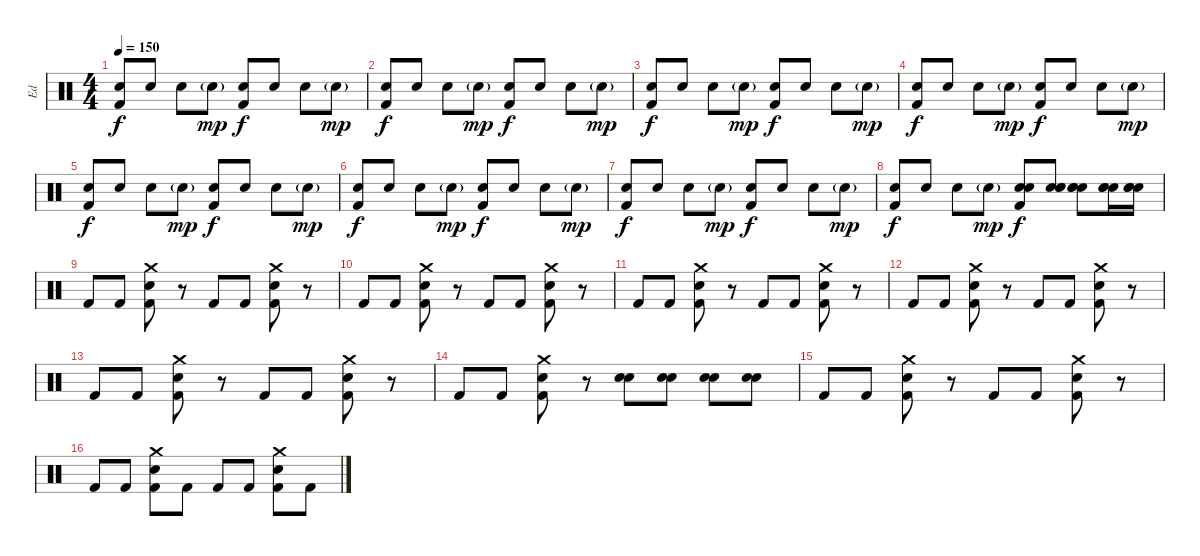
\track ("Ed" "Ed") {instrument percussion}
\staff {score}
\articulation defaults
\ts (4 4)
\tempo 150
\clef neutral
\ks c
("Kick (hit) 2" "Electric Snare (hit)").8{dy f} "Electric Snare (hit)".8 "Electric Snare (hit)".8 "Electric Snare (hit)"{g}.8{dy mp} ("Kick (hit) 2" "Electric Snare (hit)").8{dy f} "Electric Snare (hit)".8 "Electric Snare (hit)".8 "Electric Snare (hit)"{g}.8{dy mp} |
("Kick (hit) 2" "Electric Snare (hit)").8{dy f} "Electric Snare (hit)".8 "Electric Snare (hit)".8 "Electric Snare (hit)"{g}.8{dy mp} ("Kick (hit) 2" "Electric Snare (hit)").8{dy f} "Electric Snare (hit)".8 "Electric Snare (hit)".8 "Electric Snare (hit)"{g}.8{dy mp} |
("Kick (hit) 2" "Electric Snare (hit)").8{dy f} "Electric Snare (hit)".8 "Electric Snare (hit)".8 "Electric Snare (hit)"{g}.8{dy mp} ("Kick (hit) 2" "Electric Snare (hit)").8{dy f} "Electric Snare (hit)".8 "Electric Snare (hit)".8 "Electric Snare (hit)"{g}.8{dy mp} |
("Kick (hit) 2" "Electric Snare (hit)").8{dy f} "Electric Snare (hit)".8 "Electric Snare (hit)".8 "Electric Snare (hit)"{g}.8{dy mp} ("Kick (hit) 2" "Electric Snare (hit)").8{dy f} "Electric Snare (hit)".8 "Electric Snare (hit)".8 "Electric Snare (hit)"{g}.8{dy mp} |
("Kick (hit) 2" "Electric Snare (hit)").8{dy f} "Electric Snare (hit)".8 "Electric Snare (hit)".8 "Electric Snare (hit)"{g}.8{dy mp} ("Kick (hit) 2" "Electric Snare (hit)").8{dy f} "Electric Snare (hit)".8 "Electric Snare (hit)".8 "Electric Snare (hit)"{g}.8{dy mp} |
("Kick (hit) 2" "Electric Snare (hit)").8{dy f} "Electric Snare (hit)".8 "Electric Snare (hit)".8 "Electric Snare (hit)"{g}.8{dy mp} ("Kick (hit) 2" "Electric Snare (hit)").8{dy f} "Electric Snare (hit)".8 "Electric Snare (hit)".8 "Electric Snare (hit)"{g}.8{dy mp} |
("Kick (hit) 2" "Electric Snare (hit)").8{dy f} "Electric Snare (hit)".8 "Electric Snare (hit)".8 "Electric Snare (hit)"{g}.8{dy mp} ("Kick (hit) 2" "Electric Snare (hit)").8{dy f} "Electric Snare (hit)".8 "Electric Snare (hit)".8 "Electric Snare (hit)"{g}.8{dy mp} |
("Kick (hit) 2" "Electric Snare (hit)").8{dy f} "Electric Snare (hit)".8 "Electric Snare (hit)".8 "Electric Snare (hit)"{g}.8{dy mp} ("Snare (hit) 2" "Kick (hit) 2" "Electric Snare (hit)").8{dy f} ("Snare (hit) 2" "Electric Snare (hit)" "Electric Snare (hit)").8 ("Snare (hit) 2" "Electric Snare (hit)" "Electric Snare (hit)").8 ("Snare (hit) 2" "Electric Snare (hit)" "Electric Snare (hit)").16 ("Snare (hit) 2" "Electric Snare (hit)" "Electric Snare (hit)").16 |
"Kick (hit) 2".8 "Kick (hit) 2".8 ("Crash medium (hit)" "Electric Snare (hit)" "Kick (hit) 2").8 r.8 "Kick (hit) 2".8 "Kick (hit) 2".8 ("Crash medium (hit)" "Electric Snare (hit)" "Kick (hit) 2").8 r.8 |
"Kick (hit) 2".8 "Kick (hit) 2".8 ("Crash medium (hit)" "Electric Snare (hit)" "Kick (hit) 2").8 r.8 "Kick (hit) 2".8 "Kick (hit) 2".8 ("Crash medium (hit)" "Electric Snare (hit)" "Kick (hit) 2").8 r.8 |
"Kick (hit) 2".8 "Kick (hit) 2".8 ("Crash medium (hit)" "Electric Snare (hit)" "Kick (hit) 2").8 r.8 "Kick (hit) 2".8 "Kick (hit) 2".8 ("Crash medium (hit)" "Electric Snare (hit)" "Kick (hit) 2").8 r.8 |
"Kick (hit) 2".8 "Kick (hit) 2".8 ("Crash medium (hit)" "Electric Snare (hit)" "Kick (hit) 2").8 r.8 "Kick (hit) 2".8 "Kick (hit) 2".8 ("Crash medium (hit)" "Electric Snare (hit)" "Kick (hit) 2").8 r.8 |
"Kick (hit) 2".8 "Kick (hit) 2".8 ("Crash medium (hit)" "Electric Snare (hit)" "Kick (hit) 2").8 r.8 "Kick (hit) 2".8 "Kick (hit) 2".8 ("Crash medium (hit)" "Electric Snare (hit)" "Kick (hit) 2").8 r.8 |
"Kick (hit) 2".8 "Kick (hit) 2".8 ("Crash medium (hit)" "Electric Snare (hit)" "Kick (hit) 2").8 r.8 ("Snare (hit) 2" "Electric Snare (hit)").8 ("Snare (hit) 2" "Electric Snare (hit)").8 ("Snare (hit) 2" "Electric Snare (hit)").8 ("Snare (hit) 2" "Electric Snare (hit)").8 |
"Kick (hit) 2".8 "Kick (hit) 2".8 ("Crash medium (hit)" "Electric Snare (hit)" "Kick (hit) 2").8 r.8 "Kick (hit) 2".8 "Kick (hit) 2".8 ("Crash medium (hit)" "Electric Snare (hit)" "Kick (hit) 2").8 r.8 |
"Kick (hit) 2".8 "Kick (hit) 2".8 ("Crash medium (hit)" "Electric Snare (hit)" "Kick (hit) 2").8 "Kick (hit) 2".8 "Kick (hit) 2".8 "Kick (hit) 2".8 ("Crash medium (hit)" "Electric Snare (hit)" "Kick (hit) 2").8 "Kick (hit) 2".8
